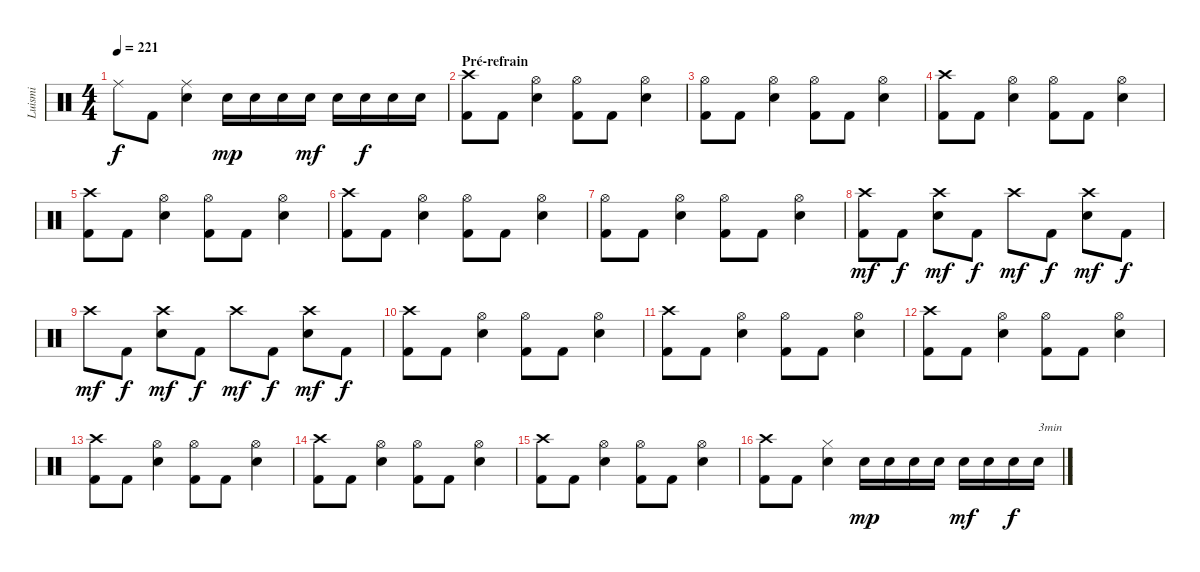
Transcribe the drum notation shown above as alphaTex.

\track ("Luismi" "Luismi") {instrument percussion}
\staff {score}
\articulation defaults
\ts (4 4)
\tempo 221
\clef neutral
\ks c "Ride (middle)".8{dy f} "Kick (hit) 2".8
("Ride (middle)" "Snare (hit) 2").4 "Snare (hit) 2".16{dy mp} "Snare (hit) 2".16 "Snare (hit) 2".16 "Snare (hit) 2".16{dy mf} "Snare (hit) 2".16 "Snare (hit) 2".16{dy f} "Snare (hit) 2".16 "Snare (hit) 2".16 |
\section ("" "Pré-refrain")
("Crash high (hit)" "Kick (hit) 2").8 "Kick (hit) 2".8 ("Hi-Hat (open)" "Snare (hit) 2").4 ("Hi-Hat (open)" "Kick (hit) 2").8 "Kick (hit) 2".8 ("Hi-Hat (open)" "Snare (hit) 2").4 |
("Hi-Hat (open)" "Kick (hit) 2").8 "Kick (hit) 2".8 ("Hi-Hat (open)" "Snare (hit) 2").4 ("Hi-Hat (open)" "Kick (hit) 2").8 "Kick (hit) 2".8 ("Hi-Hat (open)" "Snare (hit) 2").4 |
("Crash high (hit)" "Kick (hit) 2").8 "Kick (hit) 2".8 ("Hi-Hat (open)" "Snare (hit) 2").4 ("Hi-Hat (open)" "Kick (hit) 2").8 "Kick (hit) 2".8 ("Hi-Hat (open)" "Snare (hit) 2").4 |
("Crash high (hit)" "Kick (hit) 2").8 "Kick (hit) 2".8 ("Hi-Hat (open)" "Snare (hit) 2").4 ("Hi-Hat (open)" "Kick (hit) 2").8 "Kick (hit) 2".8 ("Hi-Hat (open)" "Snare (hit) 2").4 |
("Crash high (hit)" "Kick (hit) 2").8 "Kick (hit) 2".8 ("Hi-Hat (open)" "Snare (hit) 2").4 ("Hi-Hat (open)" "Kick (hit) 2").8 "Kick (hit) 2".8 ("Hi-Hat (open)" "Snare (hit) 2").4 |
("Hi-Hat (open)" "Kick (hit) 2").8 "Kick (hit) 2".8 ("Hi-Hat (open)" "Snare (hit) 2").4 ("Hi-Hat (open)" "Kick (hit) 2").8 "Kick (hit) 2".8 ("Hi-Hat (open)" "Snare (hit) 2").4 |
("Crash high (hit)" "Kick (hit) 2").8{dy mf} "Kick (hit) 2".8{dy f} ("Crash high (hit)" "Snare (hit) 2").8{dy mf} "Kick (hit) 2".8{dy f} "Crash high (hit)".8{dy mf} "Kick (hit) 2".8{dy f} ("Crash high (hit)" "Snare (hit) 2").8{dy mf} "Kick (hit) 2".8{dy f} |
"Crash high (hit)".8{dy mf} "Kick (hit) 2".8{dy f} ("Crash high (hit)" "Snare (hit) 2").8{dy mf} "Kick (hit) 2".8{dy f} "Crash high (hit)".8{dy mf} "Kick (hit) 2".8{dy f} ("Crash high (hit)" "Snare (hit) 2").8{dy mf} "Kick (hit) 2".8{dy f} |
("Crash high (hit)" "Kick (hit) 2").8 "Kick (hit) 2".8 ("Hi-Hat (open)" "Snare (hit) 2").4 ("Hi-Hat (open)" "Kick (hit) 2").8 "Kick (hit) 2".8 ("Hi-Hat (open)" "Snare (hit) 2").4 |
("Crash high (hit)" "Kick (hit) 2").8 "Kick (hit) 2".8 ("Hi-Hat (open)" "Snare (hit) 2").4 ("Hi-Hat (open)" "Kick (hit) 2").8 "Kick (hit) 2".8 ("Hi-Hat (open)" "Snare (hit) 2").4 |
("Crash high (hit)" "Kick (hit) 2").8 "Kick (hit) 2".8 ("Hi-Hat (open)" "Snare (hit) 2").4 ("Hi-Hat (open)" "Kick (hit) 2").8 "Kick (hit) 2".8 ("Hi-Hat (open)" "Snare (hit) 2").4 |
("Crash high (hit)" "Kick (hit) 2").8 "Kick (hit) 2".8 ("Hi-Hat (open)" "Snare (hit) 2").4 ("Hi-Hat (open)" "Kick (hit) 2").8 "Kick (hit) 2".8 ("Hi-Hat (open)" "Snare (hit) 2").4 |
("Crash high (hit)" "Kick (hit) 2").8 "Kick (hit) 2".8 ("Hi-Hat (open)" "Snare (hit) 2").4 ("Hi-Hat (open)" "Kick (hit) 2").8 "Kick (hit) 2".8 ("Hi-Hat (open)" "Snare (hit) 2").4 |
("Crash high (hit)" "Kick (hit) 2").8 "Kick (hit) 2".8 ("Hi-Hat (open)" "Snare (hit) 2").4 ("Hi-Hat (open)" "Kick (hit) 2").8 "Kick (hit) 2".8 ("Hi-Hat (open)" "Snare (hit) 2").4 |
("Crash high (hit)" "Kick (hit) 2").8 "Kick (hit) 2".8 ("Hi-Hat (closed)" "Snare (hit) 2").4 "Snare (hit) 2".16{dy mp} "Snare (hit) 2".16 "Snare (hit) 2".16 "Snare (hit) 2".16 "Snare (hit) 2".16{dy mf} "Snare (hit) 2".16 "Snare (hit) 2".16{dy f} "Snare (hit) 2".16{txt "3min"}
